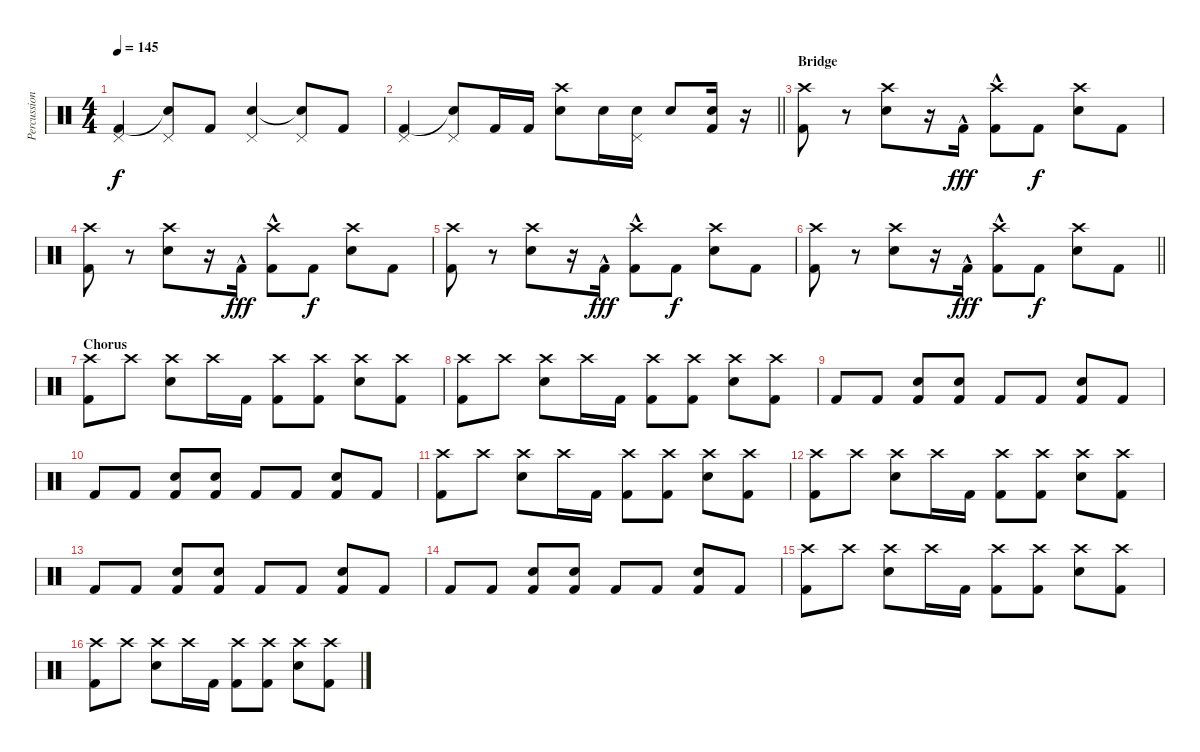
\track ("Percussion" "Percussion") {instrument percussion}
\staff {score}
\articulation defaults
\ts (4 4)
\tempo 145
\clef neutral
\ks c
("Pedal Hi-Hat (hit)" "Kick (hit) 2").4{dy f} ("Pedal Hi-Hat (hit)" "Snare (hit)"{t}).8 "Kick (hit) 2".8 ("Pedal Hi-Hat (hit)" "Snare (hit) 2").4 ("Pedal Hi-Hat (hit)" "Snare (hit)"{t}).8 "Kick (hit) 2".8 |
\barLineRight lightlight
("Pedal Hi-Hat (hit)" "Kick (hit) 2").4 ("Pedal Hi-Hat (hit)" "Snare (hit)"{t}).8 "Kick (hit) 2".16 "Kick (hit) 2".16 ("Crash high (hit)" "Snare (hit) 2").8 "Snare (hit) 2".16 ("Pedal Hi-Hat (hit)" "Snare (hit) 2").16 "Snare (hit) 2".8 ("Snare (hit) 2" "Kick (hit) 2").16 r.16 |
\section ("" "Bridge")
("Crash high (hit)" "Kick (hit) 2").8 r.8 ("Snare (hit) 2" "Crash high (hit)").8 r.16 "Kick (hit) 2"{hac}.16{dy fff} ("Crash high (hit)" "Kick (hit) 2"{hac}).8 "Kick (hit) 2".8{dy f} ("Snare (hit) 2" "Crash high (hit)").8 "Kick (hit) 2".8 |
("Crash high (hit)" "Kick (hit) 2").8 r.8 ("Snare (hit) 2" "Crash high (hit)").8 r.16 "Kick (hit) 2"{hac}.16{dy fff} ("Crash high (hit)" "Kick (hit) 2"{hac}).8 "Kick (hit) 2".8{dy f} ("Snare (hit) 2" "Crash high (hit)").8 "Kick (hit) 2".8 |
("Crash high (hit)" "Kick (hit) 2").8 r.8 ("Snare (hit) 2" "Crash high (hit)").8 r.16 "Kick (hit) 2"{hac}.16{dy fff} ("Crash high (hit)" "Kick (hit) 2"{hac}).8 "Kick (hit) 2".8{dy f} ("Snare (hit) 2" "Crash high (hit)").8 "Kick (hit) 2".8 |
\barLineRight lightlight
("Crash high (hit)" "Kick (hit) 2").8 r.8 ("Snare (hit) 2" "Crash high (hit)").8 r.16 "Kick (hit) 2"{hac}.16{dy fff} ("Crash high (hit)" "Kick (hit) 2"{hac}).8 "Kick (hit) 2".8{dy f} ("Snare (hit) 2" "Crash high (hit)").8 "Kick (hit) 2".8 |
\section ("" "Chorus")
("Crash high (hit)" "Kick (hit) 2").8 "Crash high (hit)".8 ("Snare (hit) 2" "Crash high (hit)").8 "Crash high (hit)".16 "Kick (hit) 2".16 ("Crash high (hit)" "Kick (hit) 2").8 ("Crash high (hit)" "Kick (hit) 2").8 ("Snare (hit) 2" "Crash high (hit)").8 ("Crash high (hit)" "Kick (hit) 2").8 |
("Crash high (hit)" "Kick (hit) 2").8 "Crash high (hit)".8 ("Snare (hit) 2" "Crash high (hit)").8 "Crash high (hit)".16 "Kick (hit) 2".16 ("Crash high (hit)" "Kick (hit) 2").8 ("Crash high (hit)" "Kick (hit) 2").8 ("Snare (hit) 2" "Crash high (hit)").8 ("Crash high (hit)" "Kick (hit) 2").8 |
"Kick (hit) 2".8 "Kick (hit) 2".8 ("Snare (hit) 2" "Kick (hit) 2").8 ("Snare (hit) 2" "Kick (hit) 2").8 "Kick (hit) 2".8 "Kick (hit) 2".8 ("Snare (hit) 2" "Kick (hit) 2").8 "Kick (hit) 2".8 |
"Kick (hit) 2".8 "Kick (hit) 2".8 ("Snare (hit) 2" "Kick (hit) 2").8 ("Snare (hit) 2" "Kick (hit) 2").8 "Kick (hit) 2".8 "Kick (hit) 2".8 ("Snare (hit) 2" "Kick (hit) 2").8 "Kick (hit) 2".8 |
("Crash high (hit)" "Kick (hit) 2").8 "Crash high (hit)".8 ("Snare (hit) 2" "Crash high (hit)").8 "Crash high (hit)".16 "Kick (hit) 2".16 ("Crash high (hit)" "Kick (hit) 2").8 ("Crash high (hit)" "Kick (hit) 2").8 ("Snare (hit) 2" "Crash high (hit)").8 ("Crash high (hit)" "Kick (hit) 2").8 |
("Crash high (hit)" "Kick (hit) 2").8 "Crash high (hit)".8 ("Snare (hit) 2" "Crash high (hit)").8 "Crash high (hit)".16 "Kick (hit) 2".16 ("Crash high (hit)" "Kick (hit) 2").8 ("Crash high (hit)" "Kick (hit) 2").8 ("Snare (hit) 2" "Crash high (hit)").8 ("Crash high (hit)" "Kick (hit) 2").8 |
"Kick (hit) 2".8 "Kick (hit) 2".8 ("Snare (hit) 2" "Kick (hit) 2").8 ("Snare (hit) 2" "Kick (hit) 2").8 "Kick (hit) 2".8 "Kick (hit) 2".8 ("Snare (hit) 2" "Kick (hit) 2").8 "Kick (hit) 2".8 |
"Kick (hit) 2".8 "Kick (hit) 2".8 ("Snare (hit) 2" "Kick (hit) 2").8 ("Snare (hit) 2" "Kick (hit) 2").8 "Kick (hit) 2".8 "Kick (hit) 2".8 ("Snare (hit) 2" "Kick (hit) 2").8 "Kick (hit) 2".8 |
("Crash high (hit)" "Kick (hit) 2").8 "Crash high (hit)".8 ("Snare (hit) 2" "Crash high (hit)").8 "Crash high (hit)".16 "Kick (hit) 2".16 ("Crash high (hit)" "Kick (hit) 2").8 ("Crash high (hit)" "Kick (hit) 2").8 ("Snare (hit) 2" "Crash high (hit)").8 ("Crash high (hit)" "Kick (hit) 2").8 |
("Crash high (hit)" "Kick (hit) 2").8 "Crash high (hit)".8 ("Snare (hit) 2" "Crash high (hit)").8 "Crash high (hit)".16 "Kick (hit) 2".16 ("Crash high (hit)" "Kick (hit) 2").8 ("Crash high (hit)" "Kick (hit) 2").8 ("Snare (hit) 2" "Crash high (hit)").8 ("Crash high (hit)" "Kick (hit) 2").8
